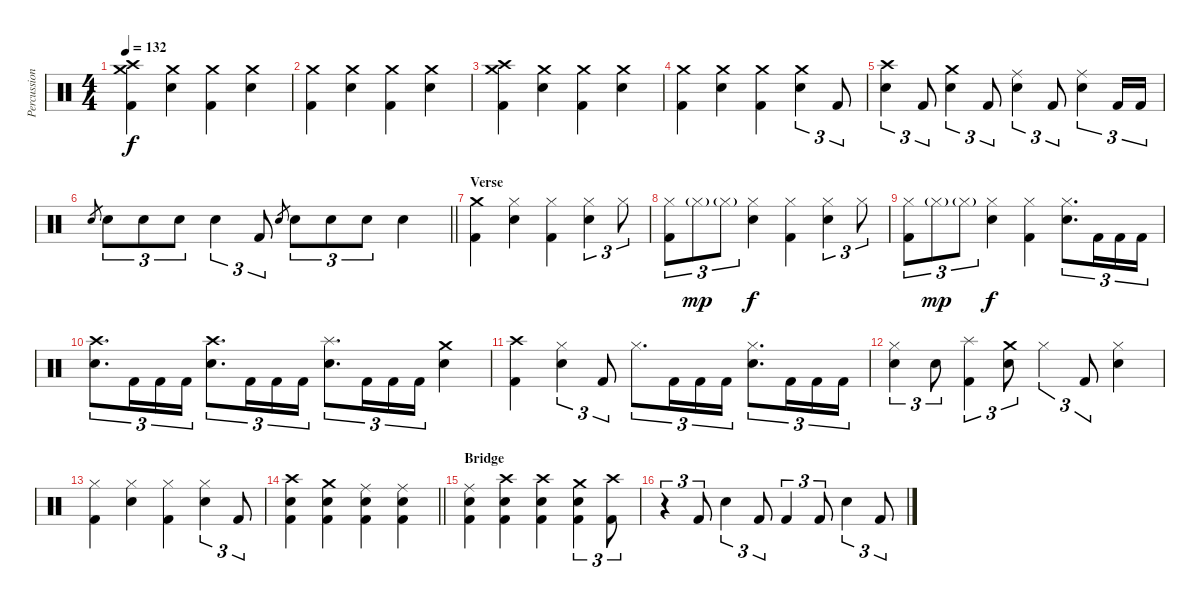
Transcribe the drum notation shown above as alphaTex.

\track ("Percussion" "Percussion") {instrument percussion}
\staff {score}
\articulation defaults
\ts (4 4)
\tempo 132
\clef neutral
\ks c
("Crash medium (hit)" "Crash high (hit)" "Kick (hit) 2").4{dy f} ("Crash medium (hit)" "Snare (hit) 2").4 ("Crash medium (hit)" "Kick (hit) 2").4 ("Crash medium (hit)" "Snare (hit) 2").4 |
("Crash medium (hit)" "Kick (hit) 2").4 ("Crash medium (hit)" "Snare (hit) 2").4 ("Crash medium (hit)" "Kick (hit) 2").4 ("Crash medium (hit)" "Snare (hit) 2").4 |
("Crash medium (hit)" "Crash high (hit)" "Kick (hit) 2").4 ("Crash medium (hit)" "Snare (hit) 2").4 ("Crash medium (hit)" "Kick (hit) 2").4 ("Crash medium (hit)" "Snare (hit) 2").4 |
("Crash medium (hit)" "Kick (hit) 2").4 ("Crash medium (hit)" "Snare (hit) 2").4 ("Crash medium (hit)" "Kick (hit) 2").4 ("Crash medium (hit)" "Snare (hit) 2").4{tu (3 2)} "Kick (hit) 2".8{tu (3 2)} |
("Crash high (hit)" "Snare (hit) 2").4{tu (3 2)} "Kick (hit) 2".8{tu (3 2)} ("Crash medium (hit)" "Snare (hit) 2").4{tu (3 2)} "Kick (hit) 2".8{tu (3 2)} ("Ride (middle)" "Snare (hit) 2").4{tu (3 2)} "Kick (hit) 2".8{tu (3 2)} ("Ride (middle)" "Snare (hit) 2").4{tu (3 2)} "Kick (hit) 2".16{tu (3 2)} "Kick (hit) 2".16{tu (3 2)} |
\barLineRight lightlight "Snare (hit) 2".8{gr} "Snare (hit) 2".8{tu (3 2)} "Snare (hit) 2".8{tu (3 2)} "Snare (hit) 2".8{tu (3 2)} "Snare (hit) 2".4{tu (3 2)} "Kick (hit) 2".8{tu (3 2)} "Snare (hit) 2".8{gr} "Snare (hit) 2".8{tu (3 2)} "Snare (hit) 2".8{tu (3 2)} "Snare (hit) 2".8{tu (3 2)} "Snare (hit) 2".4
|
\section ("" "Verse")
("Crash medium (hit)" "Kick (hit) 2").4 ("Hi-Hat (closed)" "Snare (hit) 2").4 ("Hi-Hat (closed)" "Kick (hit) 2").4 ("Hi-Hat (closed)" "Snare (hit) 2").4{tu (3 2)} "Hi-Hat (closed)".8{tu (3 2)} |
("Hi-Hat (closed)" "Kick (hit) 2").8{tu (3 2)} "Hi-Hat (closed)"{g}.8{tu (3 2) dy mp} "Hi-Hat (closed)"{g}.8{tu (3 2)} ("Hi-Hat (closed)" "Snare (hit) 2").4{dy f} ("Hi-Hat (closed)" "Kick (hit) 2").4 ("Hi-Hat (closed)" "Snare (hit) 2").4{tu (3 2)} "Hi-Hat (closed)".8{tu (3 2)} |
("Hi-Hat (closed)" "Kick (hit) 2").8{tu (3 2)} "Hi-Hat (closed)"{g}.8{tu (3 2) dy mp} "Hi-Hat (closed)"{g}.8{tu (3 2)} ("Hi-Hat (closed)" "Snare (hit) 2").4{dy f} ("Hi-Hat (closed)" "Kick (hit) 2").4 ("Hi-Hat (closed)" "Snare (hit) 2").8{d tu (3 2)} "Kick (hit) 2".16{tu (3 2)} "Kick (hit) 2".16{tu (3 2)} "Kick (hit) 2".16{tu (3 2)} |
("Crash high (hit)" "Snare (hit) 2").8{d tu (3 2)} "Kick (hit) 2".16{tu (3 2)} "Kick (hit) 2".16{tu (3 2)} "Kick (hit) 2".16{tu (3 2)} ("Crash high (hit)" "Snare (hit) 2").8{d tu (3 2)} "Kick (hit) 2".16{tu (3 2)} "Kick (hit) 2".16{tu (3 2)} "Kick (hit) 2".16{tu (3 2)} ("Splash (hit)" "Snare (hit) 2").8{d tu (3 2)} "Kick (hit) 2".16{tu (3 2)} "Kick (hit) 2".16{tu (3 2)} "Kick (hit) 2".16{tu (3 2)} ("Crash medium (hit)" "Snare (hit) 2").4 |
("Crash high (hit)" "Kick (hit) 2").4 ("Hi-Hat (closed)" "Snare (hit) 2").4{tu (3 2)} "Kick (hit) 2".8{tu (3 2)} "Hi-Hat (closed)".8{d tu (3 2)} "Kick (hit) 2".16{tu (3 2)} "Kick (hit) 2".16{tu (3 2)} "Kick (hit) 2".16{tu (3 2)} ("Hi-Hat (closed)" "Snare (hit) 2").8{d tu (3 2)} "Kick (hit) 2".16{tu (3 2)} "Kick (hit) 2".16{tu (3 2)} "Kick (hit) 2".16{tu (3 2)} |
("Hi-Hat (closed)" "Snare (hit) 2").4{tu (3 2)} "Snare (hit) 2".8{tu (3 2)} ("Splash (hit)" "Kick (hit) 2").4{tu (3 2)} ("Crash medium (hit)" "Snare (hit) 2").8{tu (3 2)} "Hi-Hat (closed)".4{tu (3 2)} "Kick (hit) 2".8{tu (3 2)} ("Hi-Hat (closed)" "Snare (hit) 2").4 |
("Hi-Hat (closed)" "Kick (hit) 2").4 ("Hi-Hat (closed)" "Snare (hit) 2").4 ("Hi-Hat (closed)" "Kick (hit) 2").4 ("Hi-Hat (closed)" "Snare (hit) 2").4{tu (3 2)} "Kick (hit) 2".8{tu (3 2)} |
\barLineRight lightlight
("Crash high (hit)" "Snare (hit) 2" "Kick (hit) 2").4 ("Crash medium (hit)" "Snare (hit) 2" "Kick (hit) 2").4 ("Ride (middle)" "Snare (hit) 2" "Kick (hit) 2").4 ("Ride (middle)" "Snare (hit) 2" "Kick (hit) 2").4 |
\section ("" "Bridge")
("Ride (middle)" "Snare (hit) 2" "Kick (hit) 2").4 ("Crash high (hit)" "Snare (hit) 2" "Kick (hit) 2").4 ("Crash high (hit)" "Snare (hit) 2" "Kick (hit) 2").4 ("Crash medium (hit)" "Snare (hit) 2" "Kick (hit) 2").4{tu (3 2)} ("Crash high (hit)" "Kick (hit) 2").8{tu (3 2)} |
r.4{tu (3 2)} "Kick (hit) 2".8{tu (3 2)} "Snare (hit) 2".4{tu (3 2)} "Kick (hit) 2".8{tu (3 2)} "Kick (hit) 2".4{tu (3 2)} "Kick (hit) 2".8{tu (3 2)} "Snare (hit) 2".4{tu (3 2)} "Kick (hit) 2".8{tu (3 2)}
